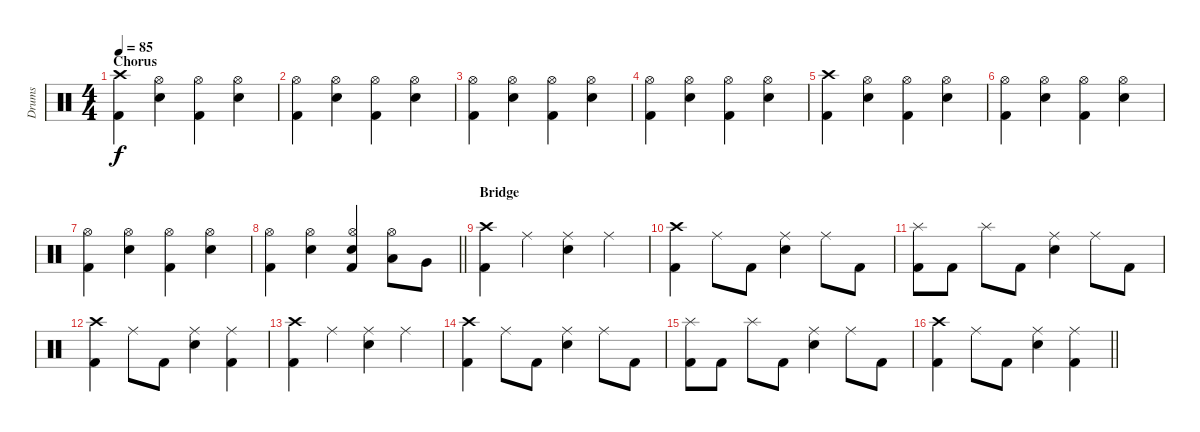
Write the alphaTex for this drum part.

\track ("Drums" "Drums") {instrument percussion}
\staff {score}
\articulation defaults
\ts (4 4)
\section ("" "Chorus")
\tempo 85
\clef neutral
\ks c
("Crash high (hit)" "Kick (hit) 2").4{dy f} ("Hi-Hat (open)" "Snare (hit) 2").4 ("Hi-Hat (open)" "Kick (hit) 2").4 ("Hi-Hat (open)" "Snare (hit) 2").4 |
("Hi-Hat (open)" "Kick (hit) 2").4 ("Hi-Hat (open)" "Snare (hit) 2").4 ("Hi-Hat (open)" "Kick (hit) 2").4 ("Hi-Hat (open)" "Snare (hit) 2").4 |
("Hi-Hat (open)" "Kick (hit) 2").4 ("Hi-Hat (open)" "Snare (hit) 2").4 ("Hi-Hat (open)" "Kick (hit) 2").4 ("Hi-Hat (open)" "Snare (hit) 2").4 |
("Hi-Hat (open)" "Kick (hit) 2").4 ("Hi-Hat (open)" "Snare (hit) 2").4 ("Hi-Hat (open)" "Kick (hit) 2").4 ("Hi-Hat (open)" "Snare (hit) 2").4 |
("Crash high (hit)" "Kick (hit) 2").4 ("Hi-Hat (open)" "Snare (hit) 2").4 ("Hi-Hat (open)" "Kick (hit) 2").4 ("Hi-Hat (open)" "Snare (hit) 2").4 |
("Hi-Hat (open)" "Kick (hit) 2").4 ("Hi-Hat (open)" "Snare (hit) 2").4 ("Hi-Hat (open)" "Kick (hit) 2").4 ("Hi-Hat (open)" "Snare (hit) 2").4 |
("Hi-Hat (open)" "Kick (hit) 2").4 ("Hi-Hat (open)" "Snare (hit) 2").4 ("Hi-Hat (open)" "Kick (hit) 2").4 ("Hi-Hat (open)" "Snare (hit) 2").4 |
\barLineRight lightlight
("Hi-Hat (open)" "Kick (hit) 2").4 ("Hi-Hat (open)" "Snare (hit) 2").4 ("Hi-Hat (open)" "Snare (hit) 2" "Kick (hit) 2").4 ("Hi-Hat (open)" "Low Tom (hit)").8 "Very Low Tom (hit)".8 |
\section ("" "Bridge")
("Crash high (hit)" "Kick (hit) 2").4 "Ride (middle)".4 ("Ride (middle)" "Snare (hit) 2").4 "Ride (middle)".4 |
("Crash high (hit)" "Kick (hit) 2").4 "Ride (middle)".8 "Kick (hit) 2".8 ("Ride (middle)" "Snare (hit) 2").4 "Ride (middle)".8 "Kick (hit) 2".8 |
("Splash (hit)" "Kick (hit) 2").8 "Kick (hit) 2".8 "Splash (hit)".8 "Kick (hit) 2".8 ("Ride (middle)" "Snare (hit) 2").4 "Ride (middle)".8 "Kick (hit) 2".8 |
("Crash high (hit)" "Kick (hit) 2").4 "Ride (middle)".8 "Kick (hit) 2".8 ("Ride (middle)" "Snare (hit) 2").4 ("Ride (middle)" "Kick (hit) 2").4 |
("Crash high (hit)" "Kick (hit) 2").4 "Ride (middle)".4 ("Ride (middle)" "Snare (hit) 2").4 "Ride (middle)".4 |
("Crash high (hit)" "Kick (hit) 2").4 "Ride (middle)".8 "Kick (hit) 2".8 ("Ride (middle)" "Snare (hit) 2").4 "Ride (middle)".8 "Kick (hit) 2".8 |
("Splash (hit)" "Kick (hit) 2").8 "Kick (hit) 2".8 "Splash (hit)".8 "Kick (hit) 2".8 ("Ride (middle)" "Snare (hit) 2").4 "Ride (middle)".8 "Kick (hit) 2".8 |
\barLineRight lightlight
("Crash high (hit)" "Kick (hit) 2").4 "Ride (middle)".8 "Kick (hit) 2".8 ("Ride (middle)" "Snare (hit) 2").4 ("Ride (middle)" "Kick (hit) 2").4
